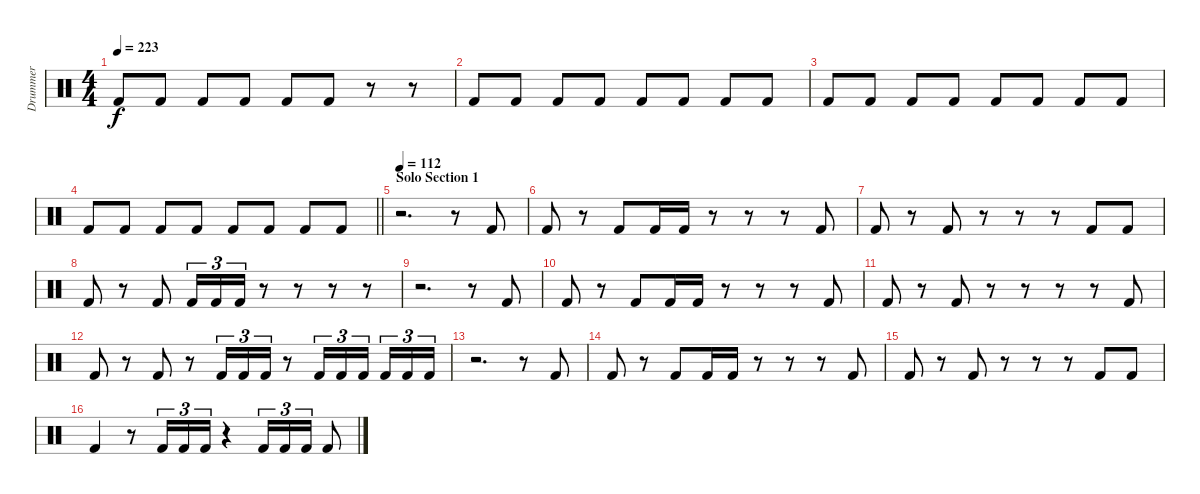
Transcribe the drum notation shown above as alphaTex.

\track ("Drummer" "Drummer") {instrument percussion}
\staff {score}
\articulation defaults
\ts (4 4)
\tempo 223
\clef neutral
\ks c "Kick (hit) 2".8{dy f} "Kick (hit) 2".8 "Kick (hit) 2".8 "Kick (hit) 2".8 "Kick (hit) 2".8 "Kick (hit) 2".8
r.8 r.8 |
"Kick (hit) 2".8 "Kick (hit) 2".8 "Kick (hit) 2".8 "Kick (hit) 2".8 "Kick (hit) 2".8 "Kick (hit) 2".8 "Kick (hit) 2".8 "Kick (hit) 2".8 |
"Kick (hit) 2".8 "Kick (hit) 2".8 "Kick (hit) 2".8 "Kick (hit) 2".8 "Kick (hit) 2".8 "Kick (hit) 2".8 "Kick (hit) 2".8 "Kick (hit) 2".8 |
\barLineRight lightlight "Kick (hit) 2".8 "Kick (hit) 2".8 "Kick (hit) 2".8 "Kick (hit) 2".8 "Kick (hit) 2".8 "Kick (hit) 2".8 "Kick (hit) 2".8 "Kick (hit) 2".8
|
\section ("" "Solo Section 1")
\tempo 112
r.2{d} r.8 "Kick (hit) 2".8 |
"Kick (hit) 2".8 r.8 "Kick (hit) 2".8 "Kick (hit) 2".16 "Kick (hit) 2".16 r.8 r.8 r.8 "Kick (hit) 2".8 |
"Kick (hit) 2".8 r.8 "Kick (hit) 2".8 r.8 r.8 r.8 "Kick (hit) 2".8 "Kick (hit) 2".8 |
"Kick (hit) 2".8 r.8 "Kick (hit) 2".8 "Kick (hit) 2".16{tu (3 2)} "Kick (hit) 2".16{tu (3 2)} "Kick (hit) 2".16{tu (3 2)} r.8 r.8 r.8 r.8 |
r.2{d} r.8 "Kick (hit) 2".8 |
"Kick (hit) 2".8 r.8 "Kick (hit) 2".8 "Kick (hit) 2".16 "Kick (hit) 2".16 r.8 r.8 r.8 "Kick (hit) 2".8 |
"Kick (hit) 2".8 r.8 "Kick (hit) 2".8 r.8 r.8 r.8 r.8 "Kick (hit) 2".8 |
"Kick (hit) 2".8 r.8 "Kick (hit) 2".8 r.8 "Kick (hit) 2".16{tu (3 2)} "Kick (hit) 2".16{tu (3 2)} "Kick (hit) 2".16{tu (3 2)} r.8 "Kick (hit) 2".16{tu (3 2)} "Kick (hit) 2".16{tu (3 2)} "Kick (hit) 2".16{tu (3 2) beam splitsecondary} "Kick (hit) 2".16{tu (3 2)} "Kick (hit) 2".16{tu (3 2)} "Kick (hit) 2".16{tu (3 2)} |
r.2{d} r.8 "Kick (hit) 2".8 |
"Kick (hit) 2".8 r.8 "Kick (hit) 2".8 "Kick (hit) 2".16 "Kick (hit) 2".16 r.8 r.8 r.8 "Kick (hit) 2".8 |
"Kick (hit) 2".8 r.8 "Kick (hit) 2".8 r.8 r.8 r.8 "Kick (hit) 2".8 "Kick (hit) 2".8 |
"Kick (hit) 2".4 r.8 "Kick (hit) 2".16{tu (3 2)} "Kick (hit) 2".16{tu (3 2)} "Kick (hit) 2".16{tu (3 2)} r.4 "Kick (hit) 2".16{tu (3 2)} "Kick (hit) 2".16{tu (3 2)} "Kick (hit) 2".16{tu (3 2)} "Kick (hit) 2".8
